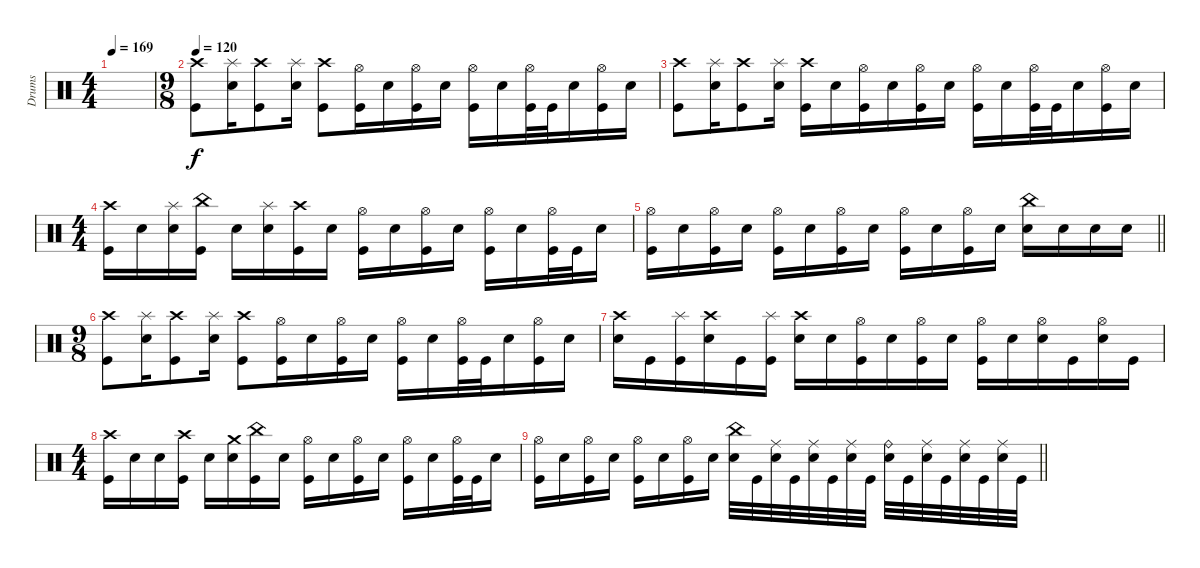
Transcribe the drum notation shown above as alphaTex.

\track ("Drums" "Drums") {instrument percussion}
\staff
\articulation defaults
\ts (4 4)
\tempo 169
\clef neutral
\ks c
|
\ts (9 8)
\tempo 120
("Crash high (hit)" "Kick (hit)").8 ("Splash (hit)" "Electric Snare (hit)").16 ("Crash high (hit)" "Kick (hit)").8 ("Splash (hit)" "Electric Snare (hit)").16 ("Crash high (hit)" "Kick (hit)").8 ("Hi-Hat (open)" "Kick (hit)").16 "Electric Snare (hit)".16 ("Hi-Hat (open)" "Kick (hit)").16 "Electric Snare (hit)".16 ("Hi-Hat (open)" "Kick (hit)").16 "Electric Snare (hit)".16 ("Hi-Hat (open)" "Kick (hit)").32 "Kick (hit)".32 "Electric Snare (hit)".16 ("Hi-Hat (open)" "Kick (hit)").16 "Electric Snare (hit)".16 |
("Crash high (hit)" "Kick (hit)").8 ("Splash (hit)" "Electric Snare (hit)").16 ("Crash high (hit)" "Kick (hit)").8 ("Splash (hit)" "Electric Snare (hit)").16 ("Crash high (hit)" "Kick (hit)").16 "Electric Snare (hit)".16 ("Hi-Hat (open)" "Kick (hit)").16 "Electric Snare (hit)".16 ("Hi-Hat (open)" "Kick (hit)").16 "Electric Snare (hit)".16 ("Hi-Hat (open)" "Kick (hit)").16 "Electric Snare (hit)".16 ("Hi-Hat (open)" "Kick (hit)").32 "Kick (hit)".32 "Electric Snare (hit)".16 ("Hi-Hat (open)" "Kick (hit)").16 "Electric Snare (hit)".16 |
\ts (4 4)
("Crash high (hit)" "Kick (hit)").16 "Electric Snare (hit)".16 ("Splash (hit)" "Electric Snare (hit)").16 ("China (hit)" "Kick (hit)").16 "Electric Snare (hit)".16 ("Splash (hit)" "Electric Snare (hit)").16 ("Crash high (hit)" "Kick (hit)").16 "Electric Snare (hit)".16 ("Hi-Hat (open)" "Kick (hit)").16 "Electric Snare (hit)".16 ("Hi-Hat (open)" "Kick (hit)").16 "Electric Snare (hit)".16 ("Hi-Hat (open)" "Kick (hit)").16 "Electric Snare (hit)".16 ("Hi-Hat (open)" "Kick (hit)").32 "Kick (hit)".32 "Electric Snare (hit)".16 |
\barLineRight lightlight
("Hi-Hat (open)" "Kick (hit)").16 "Electric Snare (hit)".16 ("Hi-Hat (open)" "Kick (hit)").16 "Electric Snare (hit)".16 ("Hi-Hat (open)" "Kick (hit)").16 "Electric Snare (hit)".16 ("Hi-Hat (open)" "Kick (hit)").16 "Electric Snare (hit)".16 ("Hi-Hat (open)" "Kick (hit)").16 "Electric Snare (hit)".16 ("Hi-Hat (open)" "Kick (hit)").16 "Electric Snare (hit)".16 ("China (hit)" "Electric Snare (hit)").16 "Electric Snare (hit)".16 "Electric Snare (hit)".16 "Electric Snare (hit)".16 |
\ts (9 8)
("Crash high (hit)" "Kick (hit)").8 ("Splash (hit)" "Electric Snare (hit)").16 ("Crash high (hit)" "Kick (hit)").8 ("Splash (hit)" "Electric Snare (hit)").16 ("Crash high (hit)" "Kick (hit)").8 ("Hi-Hat (open)" "Kick (hit)").16 "Electric Snare (hit)".16 ("Hi-Hat (open)" "Kick (hit)").16 "Electric Snare (hit)".16 ("Hi-Hat (open)" "Kick (hit)").16 "Electric Snare (hit)".16 ("Hi-Hat (open)" "Kick (hit)").32 "Kick (hit)".32 "Electric Snare (hit)".16 ("Hi-Hat (open)" "Kick (hit)").16 "Electric Snare (hit)".16 |
("Crash high (hit)" "Electric Snare (hit)").16 "Kick (hit)".16 ("Splash (hit)" "Kick (hit)").16 ("Crash high (hit)" "Electric Snare (hit)").16 "Kick (hit)".16 ("Splash (hit)" "Kick (hit)").16 ("Crash high (hit)" "Electric Snare (hit)").16 "Electric Snare (hit)".16 ("Hi-Hat (open)" "Kick (hit)").16 "Electric Snare (hit)".16 ("Hi-Hat (open)" "Kick (hit)").16 "Electric Snare (hit)".16 ("Hi-Hat (open)" "Kick (hit)").16 "Electric Snare (hit)".16 ("Hi-Hat (open)" "Electric Snare (hit)").16 "Kick (hit)".16 ("Hi-Hat (open)" "Electric Snare (hit)").16 "Kick (hit)".16 |
\ts (4 4)
("Crash high (hit)" "Kick (hit)").16 "Electric Snare (hit)".16 "Electric Snare (hit)".16 ("Crash high (hit)" "Kick (hit)").16 "Electric Snare (hit)".16 ("Crash medium (hit)" "Electric Snare (hit)").16 ("China (hit)" "Kick (hit)").16 "Electric Snare (hit)".16 ("Hi-Hat (open)" "Kick (hit)").16 "Electric Snare (hit)".16 ("Hi-Hat (open)" "Kick (hit)").16 "Electric Snare (hit)".16 ("Hi-Hat (open)" "Kick (hit)").16 "Electric Snare (hit)".16 ("Hi-Hat (open)" "Kick (hit)").32 "Kick (hit)".32 "Electric Snare (hit)".16 |
\barLineRight lightlight
("Hi-Hat (open)" "Kick (hit)").16 "Electric Snare (hit)".16 ("Hi-Hat (open)" "Kick (hit)").16 "Electric Snare (hit)".16 ("Hi-Hat (open)" "Kick (hit)").16 "Electric Snare (hit)".16 ("Hi-Hat (open)" "Kick (hit)").16 "Electric Snare (hit)".16 ("China (hit)" "Electric Snare (hit)").32 "Kick (hit)".32 ("Ride (middle)" "Electric Snare (hit)").32 "Kick (hit)".32 ("Ride (middle)" "Electric Snare (hit)").32 "Kick (hit)".32 ("Ride (middle)" "Electric Snare (hit)").32 "Kick (hit)".32 ("Ride (bell)" "Electric Snare (hit)").32 "Kick (hit)".32 ("Ride (middle)" "Electric Snare (hit)").32 "Kick (hit)".32 ("Ride (middle)" "Electric Snare (hit)").32 "Kick (hit)".32 ("Ride (middle)" "Electric Snare (hit)").32 "Kick (hit)".32
